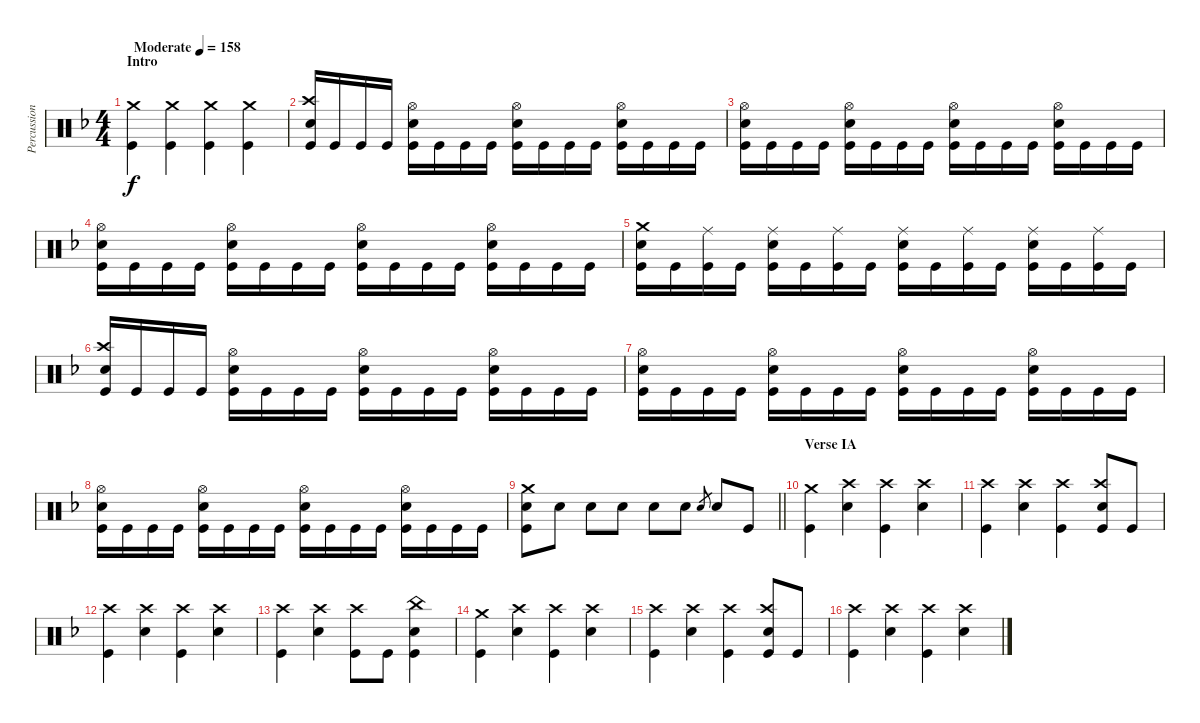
\track ("Percussion" "Percussion") {instrument percussion}
\staff {score}
\articulation defaults
\ts (4 4)
\section ("" "Intro")
\tempo (158 "Moderate")
\clef neutral
\ks f
("Crash medium (hit)" "Kick (hit)").4{dy f} ("Crash medium (hit)" "Kick (hit)").4 ("Crash medium (hit)" "Kick (hit)").4 ("Crash medium (hit)" "Kick (hit)").4 |
("Crash high (hit)" "Electric Snare (hit)" "Kick (hit)").16 "Kick (hit)".16 "Kick (hit)".16 "Kick (hit)".16 ("Hi-Hat (open)" "Electric Snare (hit)" "Kick (hit)").16 "Kick (hit)".16 "Kick (hit)".16 "Kick (hit)".16 ("Hi-Hat (open)" "Electric Snare (hit)" "Kick (hit)").16 "Kick (hit)".16 "Kick (hit)".16 "Kick (hit)".16 ("Hi-Hat (open)" "Electric Snare (hit)" "Kick (hit)").16 "Kick (hit)".16 "Kick (hit)".16 "Kick (hit)".16 |
("Hi-Hat (open)" "Electric Snare (hit)" "Kick (hit)").16 "Kick (hit)".16 "Kick (hit)".16 "Kick (hit)".16 ("Hi-Hat (open)" "Electric Snare (hit)" "Kick (hit)").16 "Kick (hit)".16 "Kick (hit)".16 "Kick (hit)".16 ("Hi-Hat (open)" "Electric Snare (hit)" "Kick (hit)").16 "Kick (hit)".16 "Kick (hit)".16 "Kick (hit)".16 ("Hi-Hat (open)" "Electric Snare (hit)" "Kick (hit)").16 "Kick (hit)".16 "Kick (hit)".16 "Kick (hit)".16 |
("Hi-Hat (open)" "Electric Snare (hit)" "Kick (hit)").16 "Kick (hit)".16 "Kick (hit)".16 "Kick (hit)".16 ("Hi-Hat (open)" "Electric Snare (hit)" "Kick (hit)").16 "Kick (hit)".16 "Kick (hit)".16 "Kick (hit)".16 ("Hi-Hat (open)" "Electric Snare (hit)" "Kick (hit)").16 "Kick (hit)".16 "Kick (hit)".16 "Kick (hit)".16 ("Hi-Hat (open)" "Electric Snare (hit)" "Kick (hit)").16 "Kick (hit)".16 "Kick (hit)".16 "Kick (hit)".16 |
("Crash medium (hit)" "Electric Snare (hit)" "Kick (hit)").16 "Kick (hit)".16 ("Ride (middle)" "Kick (hit)").16 "Kick (hit)".16 ("Ride (middle)" "Electric Snare (hit)" "Kick (hit)").16 "Kick (hit)".16 ("Ride (middle)" "Kick (hit)").16 "Kick (hit)".16 ("Ride (middle)" "Electric Snare (hit)" "Kick (hit)").16 "Kick (hit)".16 ("Ride (middle)" "Kick (hit)").16 "Kick (hit)".16 ("Ride (middle)" "Electric Snare (hit)" "Kick (hit)").16 "Kick (hit)".16 ("Ride (middle)" "Kick (hit)").16 "Kick (hit)".16 |
("Crash high (hit)" "Electric Snare (hit)" "Kick (hit)").16 "Kick (hit)".16 "Kick (hit)".16 "Kick (hit)".16 ("Hi-Hat (open)" "Electric Snare (hit)" "Kick (hit)").16 "Kick (hit)".16 "Kick (hit)".16 "Kick (hit)".16 ("Hi-Hat (open)" "Electric Snare (hit)" "Kick (hit)").16 "Kick (hit)".16 "Kick (hit)".16 "Kick (hit)".16 ("Hi-Hat (open)" "Electric Snare (hit)" "Kick (hit)").16 "Kick (hit)".16 "Kick (hit)".16 "Kick (hit)".16 |
("Hi-Hat (open)" "Electric Snare (hit)" "Kick (hit)").16 "Kick (hit)".16 "Kick (hit)".16 "Kick (hit)".16 ("Hi-Hat (open)" "Electric Snare (hit)" "Kick (hit)").16 "Kick (hit)".16 "Kick (hit)".16 "Kick (hit)".16 ("Hi-Hat (open)" "Electric Snare (hit)" "Kick (hit)").16 "Kick (hit)".16 "Kick (hit)".16 "Kick (hit)".16 ("Hi-Hat (open)" "Electric Snare (hit)" "Kick (hit)").16 "Kick (hit)".16 "Kick (hit)".16 "Kick (hit)".16 |
("Hi-Hat (open)" "Electric Snare (hit)" "Kick (hit)").16 "Kick (hit)".16 "Kick (hit)".16 "Kick (hit)".16 ("Hi-Hat (open)" "Electric Snare (hit)" "Kick (hit)").16 "Kick (hit)".16 "Kick (hit)".16 "Kick (hit)".16 ("Hi-Hat (open)" "Electric Snare (hit)" "Kick (hit)").16 "Kick (hit)".16 "Kick (hit)".16 "Kick (hit)".16 ("Hi-Hat (open)" "Electric Snare (hit)" "Kick (hit)").16 "Kick (hit)".16 "Kick (hit)".16 "Kick (hit)".16 |
\barLineRight lightlight
("Crash medium (hit)" "Electric Snare (hit)" "Kick (hit)").8 "Electric Snare (hit)".8 "Electric Snare (hit)".8 "Electric Snare (hit)".8 "Electric Snare (hit)".8 "Electric Snare (hit)".8 "Electric Snare (hit)".8{gr} "Electric Snare (hit)".8 "Kick (hit)".8 |
\section ("" "Verse IA")
("Crash medium (hit)" "Kick (hit)").4 ("Crash high (hit)" "Electric Snare (hit)").4 ("Crash high (hit)" "Kick (hit)").4 ("Crash high (hit)" "Electric Snare (hit)").4 |
("Crash high (hit)" "Kick (hit)").4 ("Crash high (hit)" "Electric Snare (hit)").4 ("Crash high (hit)" "Kick (hit)").4 ("Crash high (hit)" "Electric Snare (hit)" "Kick (hit)").8 "Kick (hit)".8 |
("Crash high (hit)" "Kick (hit)").4 ("Crash high (hit)" "Electric Snare (hit)").4 ("Crash high (hit)" "Kick (hit)").4 ("Crash high (hit)" "Electric Snare (hit)").4 |
("Crash high (hit)" "Kick (hit)").4 ("Crash high (hit)" "Electric Snare (hit)").4 ("Crash high (hit)" "Kick (hit)").8 "Kick (hit)".8 ("China (hit)" "Electric Snare (hit)" "Kick (hit)").4 |
("Crash medium (hit)" "Kick (hit)").4 ("Crash high (hit)" "Electric Snare (hit)").4 ("Crash high (hit)" "Kick (hit)").4 ("Crash high (hit)" "Electric Snare (hit)").4 |
("Crash high (hit)" "Kick (hit)").4 ("Crash high (hit)" "Electric Snare (hit)").4 ("Crash high (hit)" "Kick (hit)").4 ("Crash high (hit)" "Electric Snare (hit)" "Kick (hit)").8 "Kick (hit)".8 |
("Crash high (hit)" "Kick (hit)").4 ("Crash high (hit)" "Electric Snare (hit)").4 ("Crash high (hit)" "Kick (hit)").4 ("Crash high (hit)" "Electric Snare (hit)").4
